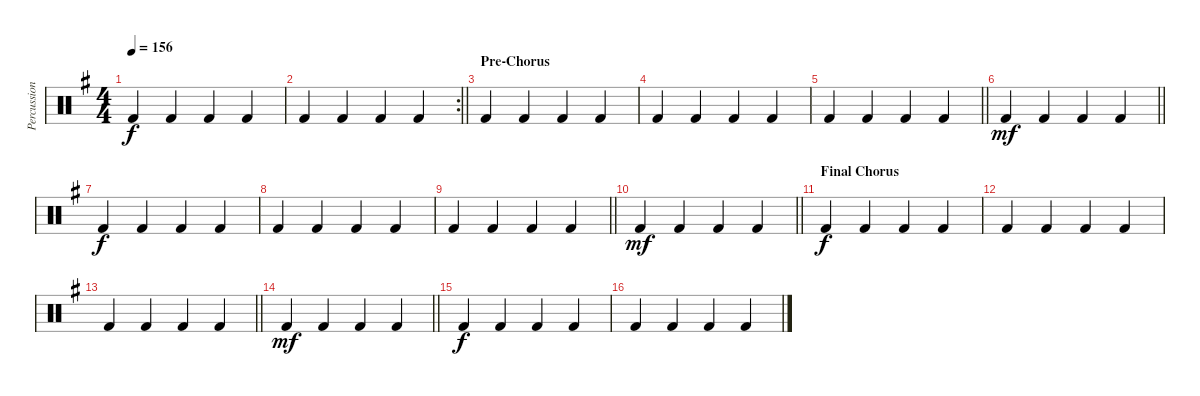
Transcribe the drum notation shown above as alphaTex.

\track ("Percussion" "Percussion") {instrument percussion}
\staff {score}
\articulation defaults
\ts (4 4)
\tempo 156
\clef neutral
\ks g "Kick (hit) 2".4{dy f} "Kick (hit) 2".4 "Kick (hit) 2".4 "Kick (hit) 2".4
|
\rc 2
\barLineRight lightlight "Kick (hit) 2".4 "Kick (hit) 2".4 "Kick (hit) 2".4 "Kick (hit) 2".4
|
\section ("" "Pre-Chorus")
"Kick (hit) 2".4 "Kick (hit) 2".4 "Kick (hit) 2".4 "Kick (hit) 2".4 |
"Kick (hit) 2".4 "Kick (hit) 2".4 "Kick (hit) 2".4 "Kick (hit) 2".4 |
\barLineRight lightlight "Kick (hit) 2".4 "Kick (hit) 2".4 "Kick (hit) 2".4 "Kick (hit) 2".4
|
\barLineRight lightlight "Kick (hit) 2".4{dy mf} "Kick (hit) 2".4 "Kick (hit) 2".4 "Kick (hit) 2".4
|
"Kick (hit) 2".4{dy f} "Kick (hit) 2".4 "Kick (hit) 2".4 "Kick (hit) 2".4 |
"Kick (hit) 2".4 "Kick (hit) 2".4 "Kick (hit) 2".4 "Kick (hit) 2".4 |
\barLineRight lightlight "Kick (hit) 2".4 "Kick (hit) 2".4 "Kick (hit) 2".4 "Kick (hit) 2".4
|
\barLineRight lightlight "Kick (hit) 2".4{dy mf} "Kick (hit) 2".4 "Kick (hit) 2".4 "Kick (hit) 2".4
|
\section ("" "Final Chorus")
"Kick (hit) 2".4{dy f} "Kick (hit) 2".4 "Kick (hit) 2".4 "Kick (hit) 2".4 |
"Kick (hit) 2".4 "Kick (hit) 2".4 "Kick (hit) 2".4 "Kick (hit) 2".4 |
\barLineRight lightlight "Kick (hit) 2".4 "Kick (hit) 2".4 "Kick (hit) 2".4 "Kick (hit) 2".4
|
\barLineRight lightlight "Kick (hit) 2".4{dy mf} "Kick (hit) 2".4 "Kick (hit) 2".4 "Kick (hit) 2".4
|
"Kick (hit) 2".4{dy f} "Kick (hit) 2".4 "Kick (hit) 2".4 "Kick (hit) 2".4 |
"Kick (hit) 2".4 "Kick (hit) 2".4 "Kick (hit) 2".4 "Kick (hit) 2".4
